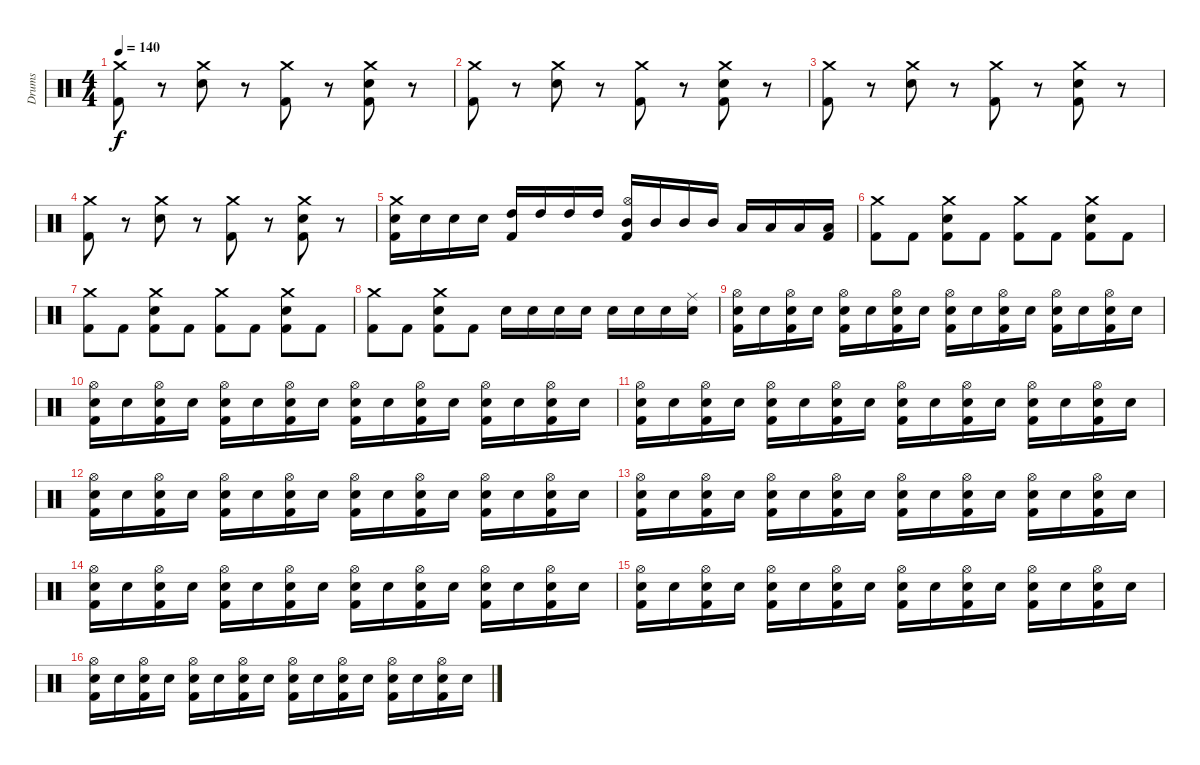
\track ("Drums" "Drums") {instrument percussion}
\staff {score}
\articulation defaults
\ts (4 4)
\tempo 140
\clef neutral
\ks c
("Crash medium (hit)" "Kick (hit) 2").8{dy f} r.8 ("Crash medium (hit)" "Electric Snare (hit)").8 r.8 ("Crash medium (hit)" "Kick (hit) 2").8 r.8 ("Crash medium (hit)" "Electric Snare (hit)" "Kick (hit) 2").8 r.8 |
("Crash medium (hit)" "Kick (hit) 2").8 r.8 ("Crash medium (hit)" "Electric Snare (hit)").8 r.8 ("Crash medium (hit)" "Kick (hit) 2").8 r.8 ("Crash medium (hit)" "Electric Snare (hit)" "Kick (hit) 2").8 r.8 |
("Crash medium (hit)" "Kick (hit) 2").8 r.8 ("Crash medium (hit)" "Electric Snare (hit)").8 r.8 ("Crash medium (hit)" "Kick (hit) 2").8 r.8 ("Crash medium (hit)" "Electric Snare (hit)" "Kick (hit) 2").8 r.8 |
("Crash medium (hit)" "Kick (hit) 2").8 r.8 ("Crash medium (hit)" "Electric Snare (hit)").8 r.8 ("Crash medium (hit)" "Kick (hit) 2").8 r.8 ("Crash medium (hit)" "Electric Snare (hit)" "Kick (hit) 2").8 r.8 |
("Crash medium (hit)" "Electric Snare (hit)" "Kick (hit) 2").16 "Electric Snare (hit)".16 "Electric Snare (hit)".16 "Electric Snare (hit)".16 ("High Tom (hit)" "Kick (hit) 2").16 "High Tom (hit)".16 "High Tom (hit)".16 "High Tom (hit)".16 ("Hi-Hat (open)" "Mid Tom (hit)" "Kick (hit) 2").16 "Mid Tom (hit)".16 "Mid Tom (hit)".16 "Mid Tom (hit)".16 "Low Tom (hit)".16 "Low Tom (hit)".16 "Low Tom (hit)".16 ("Low Tom (hit)" "Kick (hit) 2").16 |
("Crash medium (hit)" "Kick (hit) 2").8 "Kick (hit) 2".8 ("Crash medium (hit)" "Electric Snare (hit)" "Kick (hit) 2").8 "Kick (hit) 2".8 ("Crash medium (hit)" "Kick (hit) 2").8 "Kick (hit) 2".8 ("Crash medium (hit)" "Electric Snare (hit)" "Kick (hit) 2").8 "Kick (hit) 2".8 |
("Crash medium (hit)" "Kick (hit) 2").8 "Kick (hit) 2".8 ("Crash medium (hit)" "Electric Snare (hit)" "Kick (hit) 2").8 "Kick (hit) 2".8 ("Crash medium (hit)" "Kick (hit) 2").8 "Kick (hit) 2".8 ("Crash medium (hit)" "Electric Snare (hit)" "Kick (hit) 2").8 "Kick (hit) 2".8 |
("Crash medium (hit)" "Kick (hit) 2").8 "Kick (hit) 2".8 ("Crash medium (hit)" "Electric Snare (hit)" "Kick (hit) 2").8 "Kick (hit) 2".8 "Electric Snare (hit)".16 "Electric Snare (hit)".16 "Electric Snare (hit)".16 "Electric Snare (hit)".16 "Electric Snare (hit)".16 "Electric Snare (hit)".16 "Electric Snare (hit)".16 ("Ride (middle)" "Electric Snare (hit)").16 |
("Hi-Hat (open)" "Electric Snare (hit)" "Kick (hit) 2").16 "Electric Snare (hit)".16 ("Hi-Hat (open)" "Electric Snare (hit)" "Kick (hit) 2").16 "Electric Snare (hit)".16 ("Hi-Hat (open)" "Electric Snare (hit)" "Kick (hit) 2").16 "Electric Snare (hit)".16 ("Hi-Hat (open)" "Electric Snare (hit)" "Kick (hit) 2").16 "Electric Snare (hit)".16 ("Hi-Hat (open)" "Electric Snare (hit)" "Kick (hit) 2").16 "Electric Snare (hit)".16 ("Hi-Hat (open)" "Electric Snare (hit)" "Kick (hit) 2").16 "Electric Snare (hit)".16 ("Hi-Hat (open)" "Electric Snare (hit)" "Kick (hit) 2").16 "Electric Snare (hit)".16 ("Hi-Hat (open)" "Electric Snare (hit)" "Kick (hit) 2").16 "Electric Snare (hit)".16 |
("Hi-Hat (open)" "Electric Snare (hit)" "Kick (hit) 2").16 "Electric Snare (hit)".16 ("Hi-Hat (open)" "Electric Snare (hit)" "Kick (hit) 2").16 "Electric Snare (hit)".16 ("Hi-Hat (open)" "Electric Snare (hit)" "Kick (hit) 2").16 "Electric Snare (hit)".16 ("Hi-Hat (open)" "Electric Snare (hit)" "Kick (hit) 2").16 "Electric Snare (hit)".16 ("Hi-Hat (open)" "Electric Snare (hit)" "Kick (hit) 2").16 "Electric Snare (hit)".16 ("Hi-Hat (open)" "Electric Snare (hit)" "Kick (hit) 2").16 "Electric Snare (hit)".16 ("Hi-Hat (open)" "Electric Snare (hit)" "Kick (hit) 2").16 "Electric Snare (hit)".16 ("Hi-Hat (open)" "Electric Snare (hit)" "Kick (hit) 2").16 "Electric Snare (hit)".16 |
("Hi-Hat (open)" "Electric Snare (hit)" "Kick (hit) 2").16 "Electric Snare (hit)".16 ("Hi-Hat (open)" "Electric Snare (hit)" "Kick (hit) 2").16 "Electric Snare (hit)".16 ("Hi-Hat (open)" "Electric Snare (hit)" "Kick (hit) 2").16 "Electric Snare (hit)".16 ("Hi-Hat (open)" "Electric Snare (hit)" "Kick (hit) 2").16 "Electric Snare (hit)".16 ("Hi-Hat (open)" "Electric Snare (hit)" "Kick (hit) 2").16 "Electric Snare (hit)".16 ("Hi-Hat (open)" "Electric Snare (hit)" "Kick (hit) 2").16 "Electric Snare (hit)".16 ("Hi-Hat (open)" "Electric Snare (hit)" "Kick (hit) 2").16 "Electric Snare (hit)".16 ("Hi-Hat (open)" "Electric Snare (hit)" "Kick (hit) 2").16 "Electric Snare (hit)".16 |
("Hi-Hat (open)" "Electric Snare (hit)" "Kick (hit) 2").16 "Electric Snare (hit)".16 ("Hi-Hat (open)" "Electric Snare (hit)" "Kick (hit) 2").16 "Electric Snare (hit)".16 ("Hi-Hat (open)" "Electric Snare (hit)" "Kick (hit) 2").16 "Electric Snare (hit)".16 ("Hi-Hat (open)" "Electric Snare (hit)" "Kick (hit) 2").16 "Electric Snare (hit)".16 ("Hi-Hat (open)" "Electric Snare (hit)" "Kick (hit) 2").16 "Electric Snare (hit)".16 ("Hi-Hat (open)" "Electric Snare (hit)" "Kick (hit) 2").16 "Electric Snare (hit)".16 ("Hi-Hat (open)" "Electric Snare (hit)" "Kick (hit) 2").16 "Electric Snare (hit)".16 ("Hi-Hat (open)" "Electric Snare (hit)" "Kick (hit) 2").16 "Electric Snare (hit)".16 |
("Hi-Hat (open)" "Electric Snare (hit)" "Kick (hit) 2").16 "Electric Snare (hit)".16 ("Hi-Hat (open)" "Electric Snare (hit)" "Kick (hit) 2").16 "Electric Snare (hit)".16 ("Hi-Hat (open)" "Electric Snare (hit)" "Kick (hit) 2").16 "Electric Snare (hit)".16 ("Hi-Hat (open)" "Electric Snare (hit)" "Kick (hit) 2").16 "Electric Snare (hit)".16 ("Hi-Hat (open)" "Electric Snare (hit)" "Kick (hit) 2").16 "Electric Snare (hit)".16 ("Hi-Hat (open)" "Electric Snare (hit)" "Kick (hit) 2").16 "Electric Snare (hit)".16 ("Hi-Hat (open)" "Electric Snare (hit)" "Kick (hit) 2").16 "Electric Snare (hit)".16 ("Hi-Hat (open)" "Electric Snare (hit)" "Kick (hit) 2").16 "Electric Snare (hit)".16 |
("Hi-Hat (open)" "Electric Snare (hit)" "Kick (hit) 2").16 "Electric Snare (hit)".16 ("Hi-Hat (open)" "Electric Snare (hit)" "Kick (hit) 2").16 "Electric Snare (hit)".16 ("Hi-Hat (open)" "Electric Snare (hit)" "Kick (hit) 2").16 "Electric Snare (hit)".16 ("Hi-Hat (open)" "Electric Snare (hit)" "Kick (hit) 2").16 "Electric Snare (hit)".16 ("Hi-Hat (open)" "Electric Snare (hit)" "Kick (hit) 2").16 "Electric Snare (hit)".16 ("Hi-Hat (open)" "Electric Snare (hit)" "Kick (hit) 2").16 "Electric Snare (hit)".16 ("Hi-Hat (open)" "Electric Snare (hit)" "Kick (hit) 2").16 "Electric Snare (hit)".16 ("Hi-Hat (open)" "Electric Snare (hit)" "Kick (hit) 2").16 "Electric Snare (hit)".16 |
("Hi-Hat (open)" "Electric Snare (hit)" "Kick (hit) 2").16 "Electric Snare (hit)".16 ("Hi-Hat (open)" "Electric Snare (hit)" "Kick (hit) 2").16 "Electric Snare (hit)".16 ("Hi-Hat (open)" "Electric Snare (hit)" "Kick (hit) 2").16 "Electric Snare (hit)".16 ("Hi-Hat (open)" "Electric Snare (hit)" "Kick (hit) 2").16 "Electric Snare (hit)".16 ("Hi-Hat (open)" "Electric Snare (hit)" "Kick (hit) 2").16 "Electric Snare (hit)".16 ("Hi-Hat (open)" "Electric Snare (hit)" "Kick (hit) 2").16 "Electric Snare (hit)".16 ("Hi-Hat (open)" "Electric Snare (hit)" "Kick (hit) 2").16 "Electric Snare (hit)".16 ("Hi-Hat (open)" "Electric Snare (hit)" "Kick (hit) 2").16 "Electric Snare (hit)".16 |
("Hi-Hat (open)" "Electric Snare (hit)" "Kick (hit) 2").16 "Electric Snare (hit)".16 ("Hi-Hat (open)" "Electric Snare (hit)" "Kick (hit) 2").16 "Electric Snare (hit)".16 ("Hi-Hat (open)" "Electric Snare (hit)" "Kick (hit) 2").16 "Electric Snare (hit)".16 ("Hi-Hat (open)" "Electric Snare (hit)" "Kick (hit) 2").16 "Electric Snare (hit)".16 ("Hi-Hat (open)" "Electric Snare (hit)" "Kick (hit) 2").16 "Electric Snare (hit)".16 ("Hi-Hat (open)" "Electric Snare (hit)" "Kick (hit) 2").16 "Electric Snare (hit)".16 ("Hi-Hat (open)" "Electric Snare (hit)" "Kick (hit) 2").16 "Electric Snare (hit)".16 ("Hi-Hat (open)" "Electric Snare (hit)" "Kick (hit) 2").16 "Electric Snare (hit)".16
